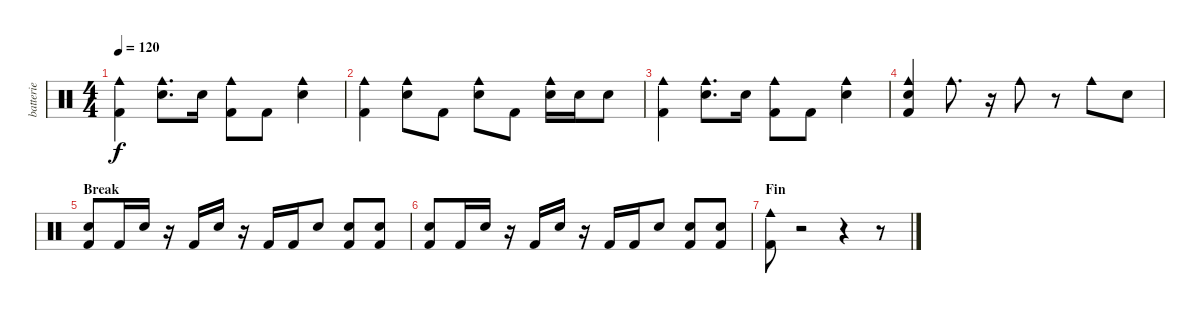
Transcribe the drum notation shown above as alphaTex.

\track ("batterie" "batterie") {instrument percussion}
\staff {score}
\articulation defaults
\ts (4 4)
\tempo 120
\clef neutral
\ks c
("Kick (hit) 2" "Cowbell medium (hit)").4{dy f} ("Electric Snare (hit)" "Cowbell medium (hit)").8{d} "Electric Snare (hit)".16 ("Kick (hit) 2" "Cowbell medium (hit)").8 "Kick (hit) 2".8 ("Electric Snare (hit)" "Cowbell medium (hit)").4 |
("Kick (hit) 2" "Cowbell medium (hit)").4 ("Electric Snare (hit)" "Cowbell medium (hit)").8 "Kick (hit) 2".8 ("Electric Snare (hit)" "Cowbell medium (hit)").8 "Kick (hit) 2".8 ("Electric Snare (hit)" "Cowbell medium (hit)").16 "Electric Snare (hit)".16 "Electric Snare (hit)".8 |
("Kick (hit) 2" "Cowbell medium (hit)").4 ("Electric Snare (hit)" "Cowbell medium (hit)").8{d} "Electric Snare (hit)".16 ("Kick (hit) 2" "Cowbell medium (hit)").8 "Kick (hit) 2".8 ("Electric Snare (hit)" "Cowbell medium (hit)").4 |
("Kick (hit) 2" "Electric Snare (hit)" "Cowbell medium (hit)").4 "Cowbell medium (hit)".8{d} r.16 "Cowbell medium (hit)".8 r.8 "Cowbell medium (hit)".8 "Electric Snare (hit)".8 |
\section ("" "Break")
("Kick (hit) 2" "Electric Snare (hit)").8 "Kick (hit) 2".16 "Electric Snare (hit)".16 r.16 "Kick (hit) 2".16 "Electric Snare (hit)".16 r.16 "Kick (hit) 2".16 "Kick (hit) 2".16 "Electric Snare (hit)".8 ("Kick (hit) 2" "Electric Snare (hit)").8 ("Kick (hit) 2" "Electric Snare (hit)").8 |
("Kick (hit) 2" "Electric Snare (hit)").8 "Kick (hit) 2".16 "Electric Snare (hit)".16 r.16 "Kick (hit) 2".16 "Electric Snare (hit)".16 r.16 "Kick (hit) 2".16 "Kick (hit) 2".16 "Electric Snare (hit)".8 ("Kick (hit) 2" "Electric Snare (hit)").8 ("Kick (hit) 2" "Electric Snare (hit)").8 |
\section ("" "Fin")
("Kick (hit) 2" "Cowbell medium (hit)").8 r.2 r.4 r.8
